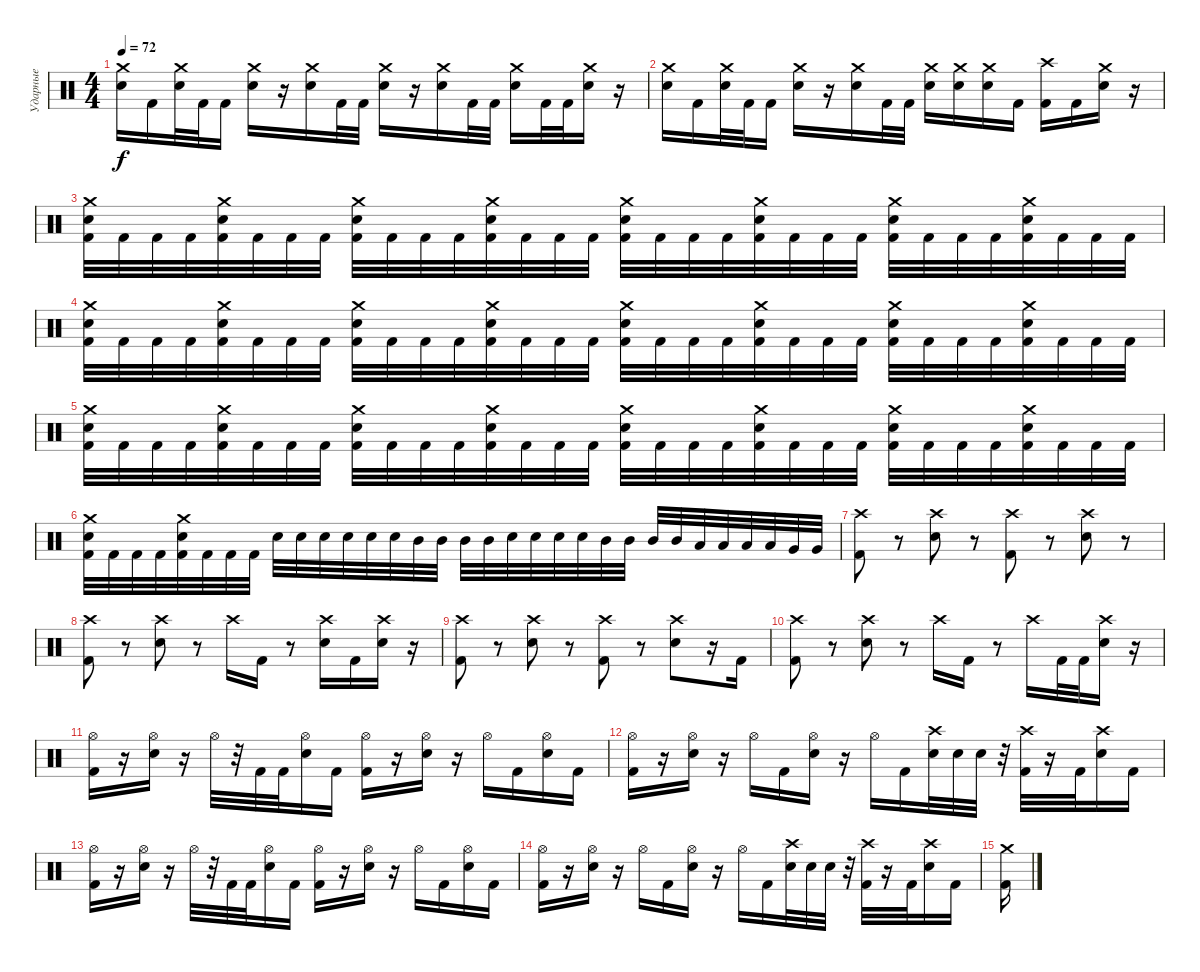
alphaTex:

\track ("Ударные" "Ударные") {instrument percussion}
\staff {score}
\articulation defaults
\ts (4 4)
\tempo 72
\clef neutral
\ks c
("Crash medium (hit)" "Electric Snare (hit)").16{dy f} "Kick (hit) 2".16 ("Crash medium (hit)" "Electric Snare (hit)").32 "Kick (hit) 2".32 "Kick (hit) 2".16 ("Crash medium (hit)" "Electric Snare (hit)").16 r.16 ("Crash medium (hit)" "Electric Snare (hit)").16 "Kick (hit) 2".32 "Kick (hit) 2".32 ("Crash medium (hit)" "Electric Snare (hit)").16 r.16 ("Crash medium (hit)" "Electric Snare (hit)").16 "Kick (hit) 2".32 "Kick (hit) 2".32 ("Crash medium (hit)" "Electric Snare (hit)").16 "Kick (hit) 2".32 "Kick (hit) 2".32 ("Crash medium (hit)" "Electric Snare (hit)").16 r.16 |
("Crash medium (hit)" "Electric Snare (hit)").16 "Kick (hit) 2".16 ("Crash medium (hit)" "Electric Snare (hit)").32 "Kick (hit) 2".32 "Kick (hit) 2".16 ("Crash medium (hit)" "Electric Snare (hit)").16 r.16 ("Crash medium (hit)" "Electric Snare (hit)").16 "Kick (hit) 2".32 "Kick (hit) 2".32 ("Crash medium (hit)" "Electric Snare (hit)").16 ("Crash medium (hit)" "Electric Snare (hit)").16 ("Crash medium (hit)" "Electric Snare (hit)").16 "Kick (hit) 2".16 ("Crash high (hit)" "Kick (hit) 2").16 "Kick (hit) 2".16 ("Crash medium (hit)" "Electric Snare (hit)").16 r.16 |
("Crash medium (hit)" "Electric Snare (hit)" "Kick (hit) 2").32 "Kick (hit) 2".32 "Kick (hit) 2".32 "Kick (hit) 2".32 ("Crash medium (hit)" "Electric Snare (hit)" "Kick (hit) 2").32 "Kick (hit) 2".32 "Kick (hit) 2".32 "Kick (hit) 2".32 ("Crash medium (hit)" "Electric Snare (hit)" "Kick (hit) 2").32 "Kick (hit) 2".32 "Kick (hit) 2".32 "Kick (hit) 2".32 ("Crash medium (hit)" "Electric Snare (hit)" "Kick (hit) 2").32 "Kick (hit) 2".32 "Kick (hit) 2".32 "Kick (hit) 2".32 ("Crash medium (hit)" "Electric Snare (hit)" "Kick (hit) 2").32 "Kick (hit) 2".32 "Kick (hit) 2".32 "Kick (hit) 2".32 ("Crash medium (hit)" "Electric Snare (hit)" "Kick (hit) 2").32 "Kick (hit) 2".32 "Kick (hit) 2".32 "Kick (hit) 2".32 ("Crash medium (hit)" "Electric Snare (hit)" "Kick (hit) 2").32 "Kick (hit) 2".32 "Kick (hit) 2".32 "Kick (hit) 2".32 ("Crash medium (hit)" "Electric Snare (hit)" "Kick (hit) 2").32 "Kick (hit) 2".32 "Kick (hit) 2".32 "Kick (hit) 2".32 |
("Crash medium (hit)" "Electric Snare (hit)" "Kick (hit) 2").32 "Kick (hit) 2".32 "Kick (hit) 2".32 "Kick (hit) 2".32 ("Crash medium (hit)" "Electric Snare (hit)" "Kick (hit) 2").32 "Kick (hit) 2".32 "Kick (hit) 2".32 "Kick (hit) 2".32 ("Crash medium (hit)" "Electric Snare (hit)" "Kick (hit) 2").32 "Kick (hit) 2".32 "Kick (hit) 2".32 "Kick (hit) 2".32 ("Crash medium (hit)" "Electric Snare (hit)" "Kick (hit) 2").32 "Kick (hit) 2".32 "Kick (hit) 2".32 "Kick (hit) 2".32 ("Crash medium (hit)" "Electric Snare (hit)" "Kick (hit) 2").32 "Kick (hit) 2".32 "Kick (hit) 2".32 "Kick (hit) 2".32 ("Crash medium (hit)" "Electric Snare (hit)" "Kick (hit) 2").32 "Kick (hit) 2".32 "Kick (hit) 2".32 "Kick (hit) 2".32 ("Crash medium (hit)" "Electric Snare (hit)" "Kick (hit) 2").32 "Kick (hit) 2".32 "Kick (hit) 2".32 "Kick (hit) 2".32 ("Crash medium (hit)" "Electric Snare (hit)" "Kick (hit) 2").32 "Kick (hit) 2".32 "Kick (hit) 2".32 "Kick (hit) 2".32 |
("Crash medium (hit)" "Electric Snare (hit)" "Kick (hit) 2").32 "Kick (hit) 2".32 "Kick (hit) 2".32 "Kick (hit) 2".32 ("Crash medium (hit)" "Electric Snare (hit)" "Kick (hit) 2").32 "Kick (hit) 2".32 "Kick (hit) 2".32 "Kick (hit) 2".32 ("Crash medium (hit)" "Electric Snare (hit)" "Kick (hit) 2").32 "Kick (hit) 2".32 "Kick (hit) 2".32 "Kick (hit) 2".32 ("Crash medium (hit)" "Electric Snare (hit)" "Kick (hit) 2").32 "Kick (hit) 2".32 "Kick (hit) 2".32 "Kick (hit) 2".32 ("Crash medium (hit)" "Electric Snare (hit)" "Kick (hit) 2").32 "Kick (hit) 2".32 "Kick (hit) 2".32 "Kick (hit) 2".32 ("Crash medium (hit)" "Electric Snare (hit)" "Kick (hit) 2").32 "Kick (hit) 2".32 "Kick (hit) 2".32 "Kick (hit) 2".32 ("Crash medium (hit)" "Electric Snare (hit)" "Kick (hit) 2").32 "Kick (hit) 2".32 "Kick (hit) 2".32 "Kick (hit) 2".32 ("Crash medium (hit)" "Electric Snare (hit)" "Kick (hit) 2").32 "Kick (hit) 2".32 "Kick (hit) 2".32 "Kick (hit) 2".32 |
("Crash medium (hit)" "Electric Snare (hit)" "Kick (hit) 2").32 "Kick (hit) 2".32 "Kick (hit) 2".32 "Kick (hit) 2".32 ("Crash medium (hit)" "Electric Snare (hit)" "Kick (hit) 2").32 "Kick (hit) 2".32 "Kick (hit) 2".32 "Kick (hit) 2".32 "Electric Snare (hit)".32 "Electric Snare (hit)".32 "Electric Snare (hit)".32 "Electric Snare (hit)".32 "Electric Snare (hit)".32 "Electric Snare (hit)".32 "Mid Tom (hit)".32 "Mid Tom (hit)".32 "Mid Tom (hit)".32 "Mid Tom (hit)".32 "Electric Snare (hit)".32 "Electric Snare (hit)".32 "Electric Snare (hit)".32 "Electric Snare (hit)".32 "Mid Tom (hit)".32 "Mid Tom (hit)".32 "Mid Tom (hit)".32 "Mid Tom (hit)".32 "Low Tom (hit)".32 "Low Tom (hit)".32 "Low Tom (hit)".32 "Low Tom (hit)".32 "Very Low Tom (hit)".32 "Very Low Tom (hit)".32 |
("Crash high (hit)" "Kick (hit) 2").8 r.8 ("Crash high (hit)" "Electric Snare (hit)").8 r.8 ("Crash high (hit)" "Kick (hit) 2").8 r.8 ("Crash high (hit)" "Electric Snare (hit)").8 r.8 |
("Crash high (hit)" "Kick (hit) 2").8 r.8 ("Crash high (hit)" "Electric Snare (hit)").8 r.8 "Crash high (hit)".16 "Kick (hit) 2".16 r.8 ("Crash high (hit)" "Electric Snare (hit)").16 "Kick (hit) 2".16 ("Crash high (hit)" "Electric Snare (hit)").16 r.16 |
("Crash high (hit)" "Kick (hit) 2").8 r.8 ("Crash high (hit)" "Electric Snare (hit)").8 r.8 ("Crash high (hit)" "Kick (hit) 2").8 r.8 ("Crash high (hit)" "Electric Snare (hit)").8 r.16 "Kick (hit) 2".16 |
("Crash high (hit)" "Kick (hit) 2").8 r.8 ("Crash high (hit)" "Electric Snare (hit)").8 r.8 "Crash high (hit)".16 "Kick (hit) 2".16 r.8 "Crash high (hit)".16 "Kick (hit) 2".32 "Kick (hit) 2".32 ("Crash high (hit)" "Electric Snare (hit)").16 r.16 |
("Hi-Hat (open)" "Kick (hit) 2").16 r.16 ("Hi-Hat (open)" "Electric Snare (hit)").16 r.16 "Hi-Hat (open)".32 r.32 "Kick (hit) 2".32 "Kick (hit) 2".32 ("Hi-Hat (open)" "Electric Snare (hit)").16 "Kick (hit) 2".16 ("Hi-Hat (open)" "Kick (hit) 2").16 r.16 ("Hi-Hat (open)" "Electric Snare (hit)").16 r.16 "Hi-Hat (open)".16 "Kick (hit) 2".16 ("Hi-Hat (open)" "Electric Snare (hit)").16 "Kick (hit) 2".16 |
("Hi-Hat (open)" "Kick (hit) 2").16 r.16 ("Hi-Hat (open)" "Electric Snare (hit)").16 r.16 "Hi-Hat (open)".16 "Kick (hit) 2".16 ("Hi-Hat (open)" "Electric Snare (hit)").16 r.16 "Hi-Hat (open)".16 "Kick (hit) 2".16 ("Crash high (hit)" "Electric Snare (hit)").32 "Electric Snare (hit)".32 "Electric Snare (hit)".32 r.32 ("Crash high (hit)" "Kick (hit) 2").32 r.16 "Kick (hit) 2".32 ("Crash high (hit)" "Electric Snare (hit)").16 "Kick (hit) 2".16 |
("Hi-Hat (open)" "Kick (hit) 2").16 r.16 ("Hi-Hat (open)" "Electric Snare (hit)").16 r.16 "Hi-Hat (open)".32 r.32 "Kick (hit) 2".32 "Kick (hit) 2".32 ("Hi-Hat (open)" "Electric Snare (hit)").16 "Kick (hit) 2".16 ("Hi-Hat (open)" "Kick (hit) 2").16 r.16 ("Hi-Hat (open)" "Electric Snare (hit)").16 r.16 "Hi-Hat (open)".16 "Kick (hit) 2".16 ("Hi-Hat (open)" "Electric Snare (hit)").16 "Kick (hit) 2".16 |
("Hi-Hat (open)" "Kick (hit) 2").16 r.16 ("Hi-Hat (open)" "Electric Snare (hit)").16 r.16 "Hi-Hat (open)".16 "Kick (hit) 2".16 ("Hi-Hat (open)" "Electric Snare (hit)").16 r.16 "Hi-Hat (open)".16 "Kick (hit) 2".16 ("Crash high (hit)" "Electric Snare (hit)").32 "Electric Snare (hit)".32 "Electric Snare (hit)".32 r.32 ("Crash high (hit)" "Kick (hit) 2").32 r.16 "Kick (hit) 2".32 ("Crash high (hit)" "Electric Snare (hit)").16 "Kick (hit) 2".16 |
("Crash medium (hit)" "Kick (hit) 2").16
